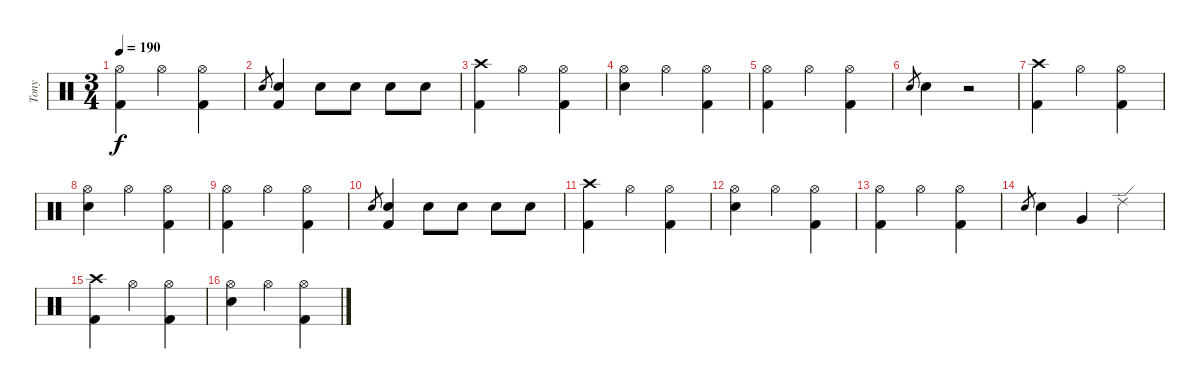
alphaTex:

\track ("Tony" "Tony") {instrument percussion}
\staff {score}
\articulation defaults
\ts (3 4)
\tempo 190
\clef neutral
\ks c
("Hi-Hat (open)" "Kick (hit) 2").4{dy f} "Hi-Hat (open)".4 ("Hi-Hat (open)" "Kick (hit) 2").4 |
"Snare (hit) 2".8{gr} ("Snare (hit) 2" "Kick (hit) 2").4 "Snare (hit) 2".8 "Snare (hit) 2".8 "Snare (hit) 2".8 "Snare (hit) 2".8 |
("Crash high (hit)" "Kick (hit) 2").4 "Hi-Hat (open)".4 ("Hi-Hat (open)" "Kick (hit) 2").4 |
("Hi-Hat (open)" "Snare (hit) 2").4 "Hi-Hat (open)".4 ("Hi-Hat (open)" "Kick (hit) 2").4 |
("Hi-Hat (open)" "Kick (hit) 2").4 "Hi-Hat (open)".4 ("Hi-Hat (open)" "Kick (hit) 2").4 |
"Snare (hit) 2".8{gr} "Snare (hit) 2".4 r.2 |
("Crash high (hit)" "Kick (hit) 2").4 "Hi-Hat (open)".4 ("Hi-Hat (open)" "Kick (hit) 2").4 |
("Hi-Hat (open)" "Snare (hit) 2").4 "Hi-Hat (open)".4 ("Hi-Hat (open)" "Kick (hit) 2").4 |
("Hi-Hat (open)" "Kick (hit) 2").4 "Hi-Hat (open)".4 ("Hi-Hat (open)" "Kick (hit) 2").4 |
"Snare (hit) 2".8{gr} ("Snare (hit) 2" "Kick (hit) 2").4 "Snare (hit) 2".8 "Snare (hit) 2".8 "Snare (hit) 2".8 "Snare (hit) 2".8 |
("Crash high (hit)" "Kick (hit) 2").4 "Hi-Hat (open)".4 ("Hi-Hat (open)" "Kick (hit) 2").4 |
("Hi-Hat (open)" "Snare (hit) 2").4 "Hi-Hat (open)".4 ("Hi-Hat (open)" "Kick (hit) 2").4 |
("Hi-Hat (open)" "Kick (hit) 2").4 "Hi-Hat (open)".4 ("Hi-Hat (open)" "Kick (hit) 2").4 |
"Snare (hit) 2".8{gr} "Snare (hit) 2".4 "Very Low Tom (hit)".4 "Ride (edge) 2".4 |
("Crash high (hit)" "Kick (hit) 2").4 "Hi-Hat (open)".4 ("Hi-Hat (open)" "Kick (hit) 2").4 |
("Hi-Hat (open)" "Snare (hit) 2").4 "Hi-Hat (open)".4 ("Hi-Hat (open)" "Kick (hit) 2").4
